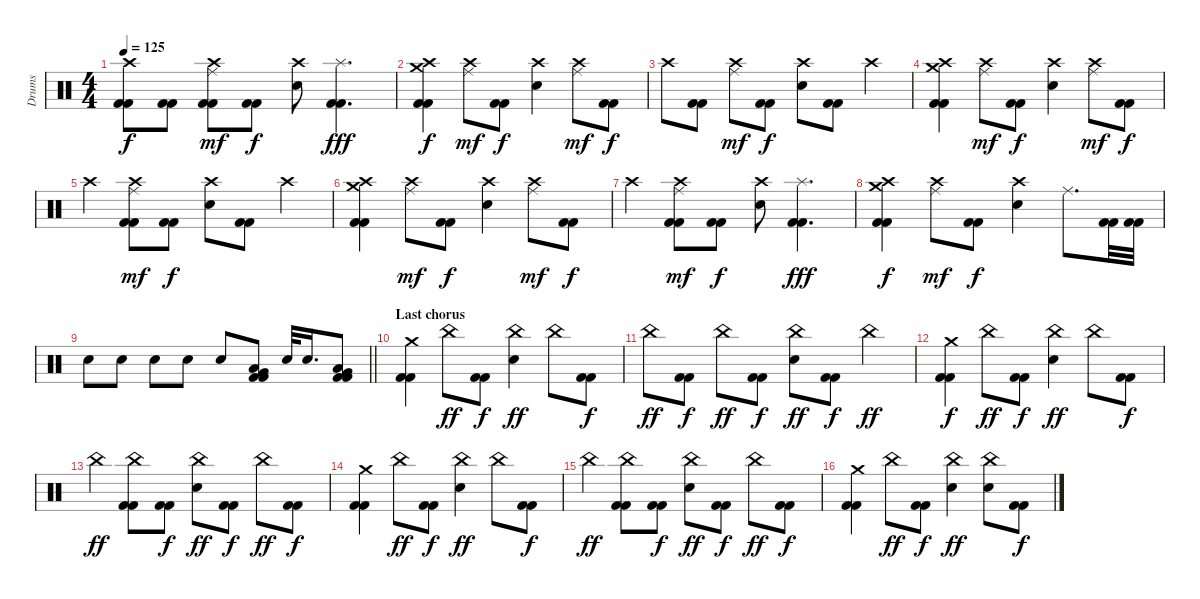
\track ("Drums" "Drums") {instrument percussion}
\staff {score}
\articulation defaults
\ts (4 4)
\tempo 125
\clef neutral
\ks c
("Crash high (hit)" "Kick (hit) 2" "Kick (hit) 2").8{dy f} ("Kick (hit) 2" "Kick (hit) 2").8 ("Crash high (hit)" "Ride (middle)" "Kick (hit) 2" "Kick (hit) 2").8{dy mf} ("Kick (hit) 2" "Kick (hit) 2").8{dy f} ("Crash high (hit)" "Electric Snare (hit)").8 ("Splash (hit)" "Kick (hit) 2" "Kick (hit) 2").4{d dy fff} |
("Crash high (hit)" "Crash medium (hit)" "Kick (hit) 2" "Kick (hit) 2").4{dy f} ("Crash high (hit)" "Ride (middle)").8{dy mf} ("Kick (hit) 2" "Kick (hit) 2").8{dy f} ("Crash high (hit)" "Electric Snare (hit)").4 ("Crash high (hit)" "Ride (middle)").8{dy mf} ("Kick (hit) 2" "Kick (hit) 2").8{dy f} |
"Crash high (hit)".8 ("Kick (hit) 2" "Kick (hit) 2").8 ("Crash high (hit)" "Ride (middle)").8{dy mf} ("Kick (hit) 2" "Kick (hit) 2").8{dy f} ("Crash high (hit)" "Electric Snare (hit)").8 ("Kick (hit) 2" "Kick (hit) 2").8 "Crash high (hit)".4 |
("Crash high (hit)" "Crash medium (hit)" "Kick (hit) 2" "Kick (hit) 2").4 ("Crash high (hit)" "Ride (middle)").8{dy mf} ("Kick (hit) 2" "Kick (hit) 2").8{dy f} ("Crash high (hit)" "Electric Snare (hit)").4 ("Crash high (hit)" "Ride (middle)").8{dy mf} ("Kick (hit) 2" "Kick (hit) 2").8{dy f} |
"Crash high (hit)".4 ("Crash high (hit)" "Ride (middle)" "Kick (hit) 2" "Kick (hit) 2").8{dy mf} ("Kick (hit) 2" "Kick (hit) 2").8{dy f} ("Crash high (hit)" "Electric Snare (hit)").8 ("Kick (hit) 2" "Kick (hit) 2").8 "Crash high (hit)".4 |
("Crash high (hit)" "Crash medium (hit)" "Kick (hit) 2" "Kick (hit) 2").4 ("Crash high (hit)" "Ride (middle)").8{dy mf} ("Kick (hit) 2" "Kick (hit) 2").8{dy f} ("Crash high (hit)" "Electric Snare (hit)").4 ("Crash high (hit)" "Ride (middle)").8{dy mf} ("Kick (hit) 2" "Kick (hit) 2").8{dy f} |
"Crash high (hit)".4 ("Crash high (hit)" "Ride (middle)" "Kick (hit) 2" "Kick (hit) 2").8{dy mf} ("Kick (hit) 2" "Kick (hit) 2").8{dy f} ("Crash high (hit)" "Electric Snare (hit)").8 ("Splash (hit)" "Kick (hit) 2" "Kick (hit) 2").4{d dy fff} |
("Crash high (hit)" "Crash medium (hit)" "Kick (hit) 2" "Kick (hit) 2").4{dy f} ("Crash high (hit)" "Ride (middle)").8{dy mf} ("Kick (hit) 2" "Kick (hit) 2").8{dy f} ("Crash high (hit)" "Electric Snare (hit)").4 "Ride (middle)".8{d} ("Kick (hit) 2" "Kick (hit) 2").32 ("Kick (hit) 2" "Kick (hit) 2").32 |
\barLineRight lightlight "Electric Snare (hit)".8 "Electric Snare (hit)".8 "Electric Snare (hit)".8 "Electric Snare (hit)".8 "Electric Snare (hit)".8
("Very Low Tom (hit)" "Low Floor Tom (hit)" "Kick (hit) 2" "Kick (hit) 2").8 "Electric Snare (hit)".32 "Electric Snare (hit)".16{d} ("Very Low Tom (hit)" "Low Floor Tom (hit)" "Kick (hit) 2" "Kick (hit) 2").8 |
\section ("" "Last chorus")
("Crash medium (hit)" "Kick (hit) 2" "Kick (hit) 2").4 "China (hit)".8{dy ff} ("Kick (hit) 2" "Kick (hit) 2").8{dy f} ("China (hit)" "Electric Snare (hit)").4{dy ff} "China (hit)".8 ("Kick (hit) 2" "Kick (hit) 2").8{dy f} |
"China (hit)".8{dy ff} ("Kick (hit) 2" "Kick (hit) 2").8{dy f} "China (hit)".8{dy ff} ("Kick (hit) 2" "Kick (hit) 2").8{dy f} ("China (hit)" "Electric Snare (hit)").8{dy ff} ("Kick (hit) 2" "Kick (hit) 2").8{dy f} "China (hit)".4{dy ff} |
("Crash medium (hit)" "Kick (hit) 2" "Kick (hit) 2").4{dy f} "China (hit)".8{dy ff} ("Kick (hit) 2" "Kick (hit) 2").8{dy f} ("China (hit)" "Electric Snare (hit)").4{dy ff} "China (hit)".8 ("Kick (hit) 2" "Kick (hit) 2").8{dy f} |
"China (hit)".4{dy ff} ("China (hit)" "Kick (hit) 2" "Kick (hit) 2").8 ("Kick (hit) 2" "Kick (hit) 2").8{dy f} ("China (hit)" "Electric Snare (hit)").8{dy ff} ("Kick (hit) 2" "Kick (hit) 2").8{dy f} "China (hit)".8{dy ff} ("Kick (hit) 2" "Kick (hit) 2").8{dy f} |
("Crash medium (hit)" "Kick (hit) 2" "Kick (hit) 2").4 "China (hit)".8{dy ff} ("Kick (hit) 2" "Kick (hit) 2").8{dy f} ("China (hit)" "Electric Snare (hit)").4{dy ff} "China (hit)".8 ("Kick (hit) 2" "Kick (hit) 2").8{dy f} |
"China (hit)".4{dy ff} ("China (hit)" "Kick (hit) 2" "Kick (hit) 2").8 ("Kick (hit) 2" "Kick (hit) 2").8{dy f} ("China (hit)" "Electric Snare (hit)").8{dy ff} ("Kick (hit) 2" "Kick (hit) 2").8{dy f} "China (hit)".8{dy ff} ("Kick (hit) 2" "Kick (hit) 2").8{dy f} |
("Crash medium (hit)" "Kick (hit) 2" "Kick (hit) 2").4 "China (hit)".8{dy ff} ("Kick (hit) 2" "Kick (hit) 2").8{dy f} ("China (hit)" "Electric Snare (hit)").4{dy ff} ("China (hit)" "Electric Snare (hit)").8 ("Kick (hit) 2" "Kick (hit) 2").8{dy f}
